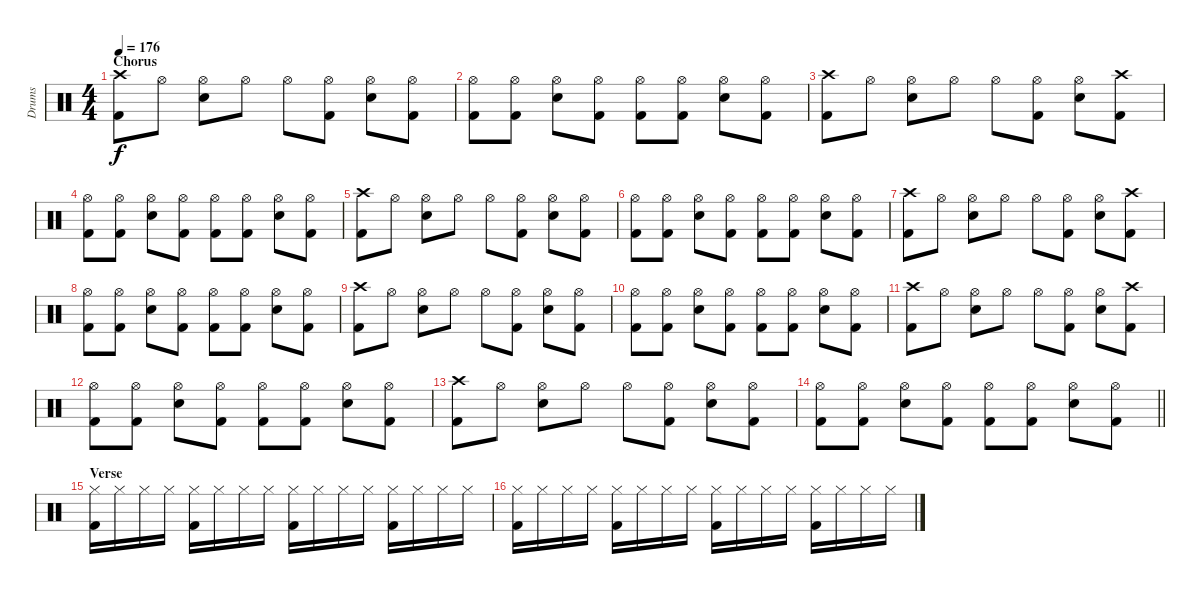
\track ("Drums" "Drums") {instrument percussion}
\staff {score}
\articulation defaults
\ts (4 4)
\section ("" "Chorus")
\tempo 176
\clef neutral
\ks c
("Crash high (hit)" "Kick (hit) 2").8{dy f} "Hi-Hat (open)".8 ("Hi-Hat (open)" "Electric Snare (hit)").8 "Hi-Hat (open)".8 "Hi-Hat (open)".8 ("Hi-Hat (open)" "Kick (hit) 2").8 ("Hi-Hat (open)" "Electric Snare (hit)").8 ("Hi-Hat (open)" "Kick (hit) 2").8 |
("Hi-Hat (open)" "Kick (hit) 2").8 ("Hi-Hat (open)" "Kick (hit) 2").8 ("Hi-Hat (open)" "Electric Snare (hit)").8 ("Hi-Hat (open)" "Kick (hit) 2").8 ("Hi-Hat (open)" "Kick (hit) 2").8 ("Hi-Hat (open)" "Kick (hit) 2").8 ("Hi-Hat (open)" "Electric Snare (hit)").8 ("Hi-Hat (open)" "Kick (hit) 2").8 |
("Crash high (hit)" "Kick (hit) 2").8 "Hi-Hat (open)".8 ("Hi-Hat (open)" "Electric Snare (hit)").8 "Hi-Hat (open)".8 "Hi-Hat (open)".8 ("Hi-Hat (open)" "Kick (hit) 2").8 ("Hi-Hat (open)" "Electric Snare (hit)").8 ("Crash high (hit)" "Kick (hit) 2").8 |
("Hi-Hat (open)" "Kick (hit) 2").8 ("Hi-Hat (open)" "Kick (hit) 2").8 ("Hi-Hat (open)" "Electric Snare (hit)").8 ("Hi-Hat (open)" "Kick (hit) 2").8 ("Hi-Hat (open)" "Kick (hit) 2").8 ("Hi-Hat (open)" "Kick (hit) 2").8 ("Hi-Hat (open)" "Electric Snare (hit)").8 ("Hi-Hat (open)" "Kick (hit) 2").8 |
("Crash high (hit)" "Kick (hit) 2").8 "Hi-Hat (open)".8 ("Hi-Hat (open)" "Electric Snare (hit)").8 "Hi-Hat (open)".8 "Hi-Hat (open)".8 ("Hi-Hat (open)" "Kick (hit) 2").8 ("Hi-Hat (open)" "Electric Snare (hit)").8 ("Hi-Hat (open)" "Kick (hit) 2").8 |
("Hi-Hat (open)" "Kick (hit) 2").8 ("Hi-Hat (open)" "Kick (hit) 2").8 ("Hi-Hat (open)" "Electric Snare (hit)").8 ("Hi-Hat (open)" "Kick (hit) 2").8 ("Hi-Hat (open)" "Kick (hit) 2").8 ("Hi-Hat (open)" "Kick (hit) 2").8 ("Hi-Hat (open)" "Electric Snare (hit)").8 ("Hi-Hat (open)" "Kick (hit) 2").8 |
("Crash high (hit)" "Kick (hit) 2").8 "Hi-Hat (open)".8 ("Hi-Hat (open)" "Electric Snare (hit)").8 "Hi-Hat (open)".8 "Hi-Hat (open)".8 ("Hi-Hat (open)" "Kick (hit) 2").8 ("Hi-Hat (open)" "Electric Snare (hit)").8 ("Crash high (hit)" "Kick (hit) 2").8 |
("Hi-Hat (open)" "Kick (hit) 2").8 ("Hi-Hat (open)" "Kick (hit) 2").8 ("Hi-Hat (open)" "Electric Snare (hit)").8 ("Hi-Hat (open)" "Kick (hit) 2").8 ("Hi-Hat (open)" "Kick (hit) 2").8 ("Hi-Hat (open)" "Kick (hit) 2").8 ("Hi-Hat (open)" "Electric Snare (hit)").8 ("Hi-Hat (open)" "Kick (hit) 2").8 |
("Crash high (hit)" "Kick (hit) 2").8 "Hi-Hat (open)".8 ("Hi-Hat (open)" "Electric Snare (hit)").8 "Hi-Hat (open)".8 "Hi-Hat (open)".8 ("Hi-Hat (open)" "Kick (hit) 2").8 ("Hi-Hat (open)" "Electric Snare (hit)").8 ("Hi-Hat (open)" "Kick (hit) 2").8 |
("Hi-Hat (open)" "Kick (hit) 2").8 ("Hi-Hat (open)" "Kick (hit) 2").8 ("Hi-Hat (open)" "Electric Snare (hit)").8 ("Hi-Hat (open)" "Kick (hit) 2").8 ("Hi-Hat (open)" "Kick (hit) 2").8 ("Hi-Hat (open)" "Kick (hit) 2").8 ("Hi-Hat (open)" "Electric Snare (hit)").8 ("Hi-Hat (open)" "Kick (hit) 2").8 |
("Crash high (hit)" "Kick (hit) 2").8 "Hi-Hat (open)".8 ("Hi-Hat (open)" "Electric Snare (hit)").8 "Hi-Hat (open)".8 "Hi-Hat (open)".8 ("Hi-Hat (open)" "Kick (hit) 2").8 ("Hi-Hat (open)" "Electric Snare (hit)").8 ("Crash high (hit)" "Kick (hit) 2").8 |
("Hi-Hat (open)" "Kick (hit) 2").8 ("Hi-Hat (open)" "Kick (hit) 2").8 ("Hi-Hat (open)" "Electric Snare (hit)").8 ("Hi-Hat (open)" "Kick (hit) 2").8 ("Hi-Hat (open)" "Kick (hit) 2").8 ("Hi-Hat (open)" "Kick (hit) 2").8 ("Hi-Hat (open)" "Electric Snare (hit)").8 ("Hi-Hat (open)" "Kick (hit) 2").8 |
("Crash high (hit)" "Kick (hit) 2").8 "Hi-Hat (open)".8 ("Hi-Hat (open)" "Electric Snare (hit)").8 "Hi-Hat (open)".8 "Hi-Hat (open)".8 ("Hi-Hat (open)" "Kick (hit) 2").8 ("Hi-Hat (open)" "Electric Snare (hit)").8 ("Hi-Hat (open)" "Kick (hit) 2").8 |
\barLineRight lightlight
("Hi-Hat (open)" "Kick (hit) 2").8 ("Hi-Hat (open)" "Kick (hit) 2").8 ("Hi-Hat (open)" "Electric Snare (hit)").8 ("Hi-Hat (open)" "Kick (hit) 2").8 ("Hi-Hat (open)" "Kick (hit) 2").8 ("Hi-Hat (open)" "Kick (hit) 2").8 ("Hi-Hat (open)" "Electric Snare (hit)").8 ("Hi-Hat (open)" "Kick (hit) 2").8 |
\section ("" "Verse")
("Hi-Hat (closed)" "Kick (hit) 2").16 "Hi-Hat (closed)".16 "Hi-Hat (closed)".16 "Hi-Hat (closed)".16 ("Hi-Hat (closed)" "Kick (hit) 2").16 "Hi-Hat (closed)".16 "Hi-Hat (closed)".16 "Hi-Hat (closed)".16 ("Hi-Hat (closed)" "Kick (hit) 2").16 "Hi-Hat (closed)".16 "Hi-Hat (closed)".16 "Hi-Hat (closed)".16 ("Hi-Hat (closed)" "Kick (hit) 2").16 "Hi-Hat (closed)".16 "Hi-Hat (closed)".16 "Hi-Hat (closed)".16 |
("Hi-Hat (closed)" "Kick (hit) 2").16 "Hi-Hat (closed)".16 "Hi-Hat (closed)".16 "Hi-Hat (closed)".16 ("Hi-Hat (closed)" "Kick (hit) 2").16 "Hi-Hat (closed)".16 "Hi-Hat (closed)".16 "Hi-Hat (closed)".16 ("Hi-Hat (closed)" "Kick (hit) 2").16 "Hi-Hat (closed)".16 "Hi-Hat (closed)".16 "Hi-Hat (closed)".16 ("Hi-Hat (closed)" "Kick (hit) 2").16 "Hi-Hat (closed)".16 "Hi-Hat (closed)".16 "Hi-Hat (closed)".16
